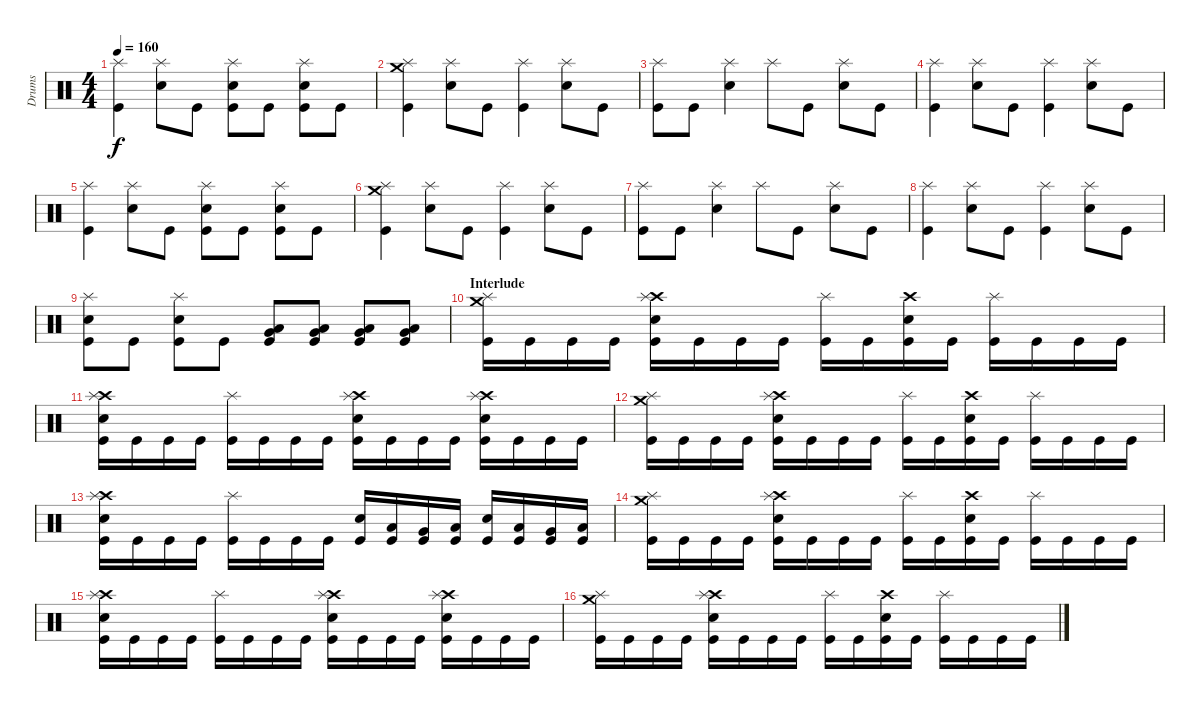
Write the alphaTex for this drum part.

\track ("Drums" "Drums") {instrument percussion}
\staff {score}
\articulation defaults
\ts (4 4)
\tempo 160
\clef neutral
\ks c
("Splash (hit)" "Kick (hit)").4{dy f} ("Splash (hit)" "Electric Snare (hit)").8 "Kick (hit)".8 ("Splash (hit)" "Electric Snare (hit)" "Kick (hit)").8 "Kick (hit)".8 ("Splash (hit)" "Electric Snare (hit)" "Kick (hit)").8 "Kick (hit)".8 |
("Crash medium (hit)" "Splash (hit)" "Kick (hit)").4 ("Splash (hit)" "Electric Snare (hit)").8 "Kick (hit)".8 ("Splash (hit)" "Kick (hit)").4 ("Splash (hit)" "Electric Snare (hit)").8 "Kick (hit)".8 |
("Splash (hit)" "Kick (hit)").8 "Kick (hit)".8 ("Splash (hit)" "Electric Snare (hit)").4 "Splash (hit)".8 "Kick (hit)".8 ("Splash (hit)" "Electric Snare (hit)").8 "Kick (hit)".8 |
("Splash (hit)" "Kick (hit)").4 ("Splash (hit)" "Electric Snare (hit)").8 "Kick (hit)".8 ("Splash (hit)" "Kick (hit)").4 ("Splash (hit)" "Electric Snare (hit)").8 "Kick (hit)".8 |
("Splash (hit)" "Kick (hit)").4 ("Splash (hit)" "Electric Snare (hit)").8 "Kick (hit)".8 ("Splash (hit)" "Electric Snare (hit)" "Kick (hit)").8 "Kick (hit)".8 ("Splash (hit)" "Electric Snare (hit)" "Kick (hit)").8 "Kick (hit)".8 |
("Crash medium (hit)" "Splash (hit)" "Kick (hit)").4 ("Splash (hit)" "Electric Snare (hit)").8 "Kick (hit)".8 ("Splash (hit)" "Kick (hit)").4 ("Splash (hit)" "Electric Snare (hit)").8 "Kick (hit)".8 |
("Splash (hit)" "Kick (hit)").8 "Kick (hit)".8 ("Splash (hit)" "Electric Snare (hit)").4 "Splash (hit)".8 "Kick (hit)".8 ("Splash (hit)" "Electric Snare (hit)").8 "Kick (hit)".8 |
("Splash (hit)" "Kick (hit)").4 ("Splash (hit)" "Electric Snare (hit)").8 "Kick (hit)".8 ("Splash (hit)" "Kick (hit)").4 ("Splash (hit)" "Electric Snare (hit)").8 "Kick (hit)".8 |
("Splash (hit)" "Electric Snare (hit)" "Kick (hit)").8 "Kick (hit)".8 ("Splash (hit)" "Electric Snare (hit)" "Kick (hit)").8 "Kick (hit)".8 ("Low Tom (hit)" "Very Low Tom (hit)" "Kick (hit)").8 ("Low Tom (hit)" "Very Low Tom (hit)" "Kick (hit)").8 ("Very Low Tom (hit)" "Low Floor Tom (hit)" "Kick (hit)").8 ("Very Low Tom (hit)" "Low Floor Tom (hit)" "Kick (hit)").8 |
\section ("" "Interlude")
("Crash medium (hit)" "Splash (hit)" "Kick (hit)").16 "Kick (hit)".16 "Kick (hit)".16 "Kick (hit)".16 ("Crash high (hit)" "Splash (hit)" "Electric Snare (hit)" "Kick (hit)").16 "Kick (hit)".16 "Kick (hit)".16 "Kick (hit)".16 ("Splash (hit)" "Kick (hit)").16 "Kick (hit)".16 ("Crash high (hit)" "Electric Snare (hit)" "Kick (hit)").16 "Kick (hit)".16 ("Splash (hit)" "Kick (hit)").16 "Kick (hit)".16 "Kick (hit)".16 "Kick (hit)".16 |
("Crash high (hit)" "Splash (hit)" "Electric Snare (hit)" "Kick (hit)").16 "Kick (hit)".16 "Kick (hit)".16 "Kick (hit)".16 ("Splash (hit)" "Kick (hit)").16 "Kick (hit)".16 "Kick (hit)".16 "Kick (hit)".16 ("Crash high (hit)" "Splash (hit)" "Electric Snare (hit)" "Kick (hit)").16 "Kick (hit)".16 "Kick (hit)".16 "Kick (hit)".16 ("Crash high (hit)" "Splash (hit)" "Electric Snare (hit)" "Kick (hit)").16 "Kick (hit)".16 "Kick (hit)".16 "Kick (hit)".16 |
("Crash medium (hit)" "Splash (hit)" "Kick (hit)").16 "Kick (hit)".16 "Kick (hit)".16 "Kick (hit)".16 ("Crash high (hit)" "Splash (hit)" "Electric Snare (hit)" "Kick (hit)").16 "Kick (hit)".16 "Kick (hit)".16 "Kick (hit)".16 ("Splash (hit)" "Kick (hit)").16 "Kick (hit)".16 ("Crash high (hit)" "Electric Snare (hit)" "Kick (hit)").16 "Kick (hit)".16 ("Splash (hit)" "Kick (hit)").16 "Kick (hit)".16 "Kick (hit)".16 "Kick (hit)".16 |
("Crash high (hit)" "Splash (hit)" "Electric Snare (hit)" "Kick (hit)").16 "Kick (hit)".16 "Kick (hit)".16 "Kick (hit)".16 ("Splash (hit)" "Kick (hit)").16 "Kick (hit)".16 "Kick (hit)".16 "Kick (hit)".16 ("Electric Snare (hit)" "Kick (hit)").16 ("Low Tom (hit)" "Kick (hit)").16 ("Very Low Tom (hit)" "Kick (hit)").16 ("Low Floor Tom (hit)" "Kick (hit)").16 ("Electric Snare (hit)" "Kick (hit)").16 ("Low Tom (hit)" "Kick (hit)").16 ("Very Low Tom (hit)" "Kick (hit)").16 ("Low Floor Tom (hit)" "Kick (hit)").16 |
("Crash medium (hit)" "Splash (hit)" "Kick (hit)").16 "Kick (hit)".16 "Kick (hit)".16 "Kick (hit)".16 ("Crash high (hit)" "Splash (hit)" "Electric Snare (hit)" "Kick (hit)").16 "Kick (hit)".16 "Kick (hit)".16 "Kick (hit)".16 ("Splash (hit)" "Kick (hit)").16 "Kick (hit)".16 ("Crash high (hit)" "Electric Snare (hit)" "Kick (hit)").16 "Kick (hit)".16 ("Splash (hit)" "Kick (hit)").16 "Kick (hit)".16 "Kick (hit)".16 "Kick (hit)".16 |
("Crash high (hit)" "Splash (hit)" "Electric Snare (hit)" "Kick (hit)").16 "Kick (hit)".16 "Kick (hit)".16 "Kick (hit)".16 ("Splash (hit)" "Kick (hit)").16 "Kick (hit)".16 "Kick (hit)".16 "Kick (hit)".16 ("Crash high (hit)" "Splash (hit)" "Electric Snare (hit)" "Kick (hit)").16 "Kick (hit)".16 "Kick (hit)".16 "Kick (hit)".16 ("Crash high (hit)" "Splash (hit)" "Electric Snare (hit)" "Kick (hit)").16 "Kick (hit)".16 "Kick (hit)".16 "Kick (hit)".16 |
("Crash medium (hit)" "Splash (hit)" "Kick (hit)").16 "Kick (hit)".16 "Kick (hit)".16 "Kick (hit)".16 ("Crash high (hit)" "Splash (hit)" "Electric Snare (hit)" "Kick (hit)").16 "Kick (hit)".16 "Kick (hit)".16 "Kick (hit)".16 ("Splash (hit)" "Kick (hit)").16 "Kick (hit)".16 ("Crash high (hit)" "Electric Snare (hit)" "Kick (hit)").16 "Kick (hit)".16 ("Splash (hit)" "Kick (hit)").16 "Kick (hit)".16 "Kick (hit)".16 "Kick (hit)".16
